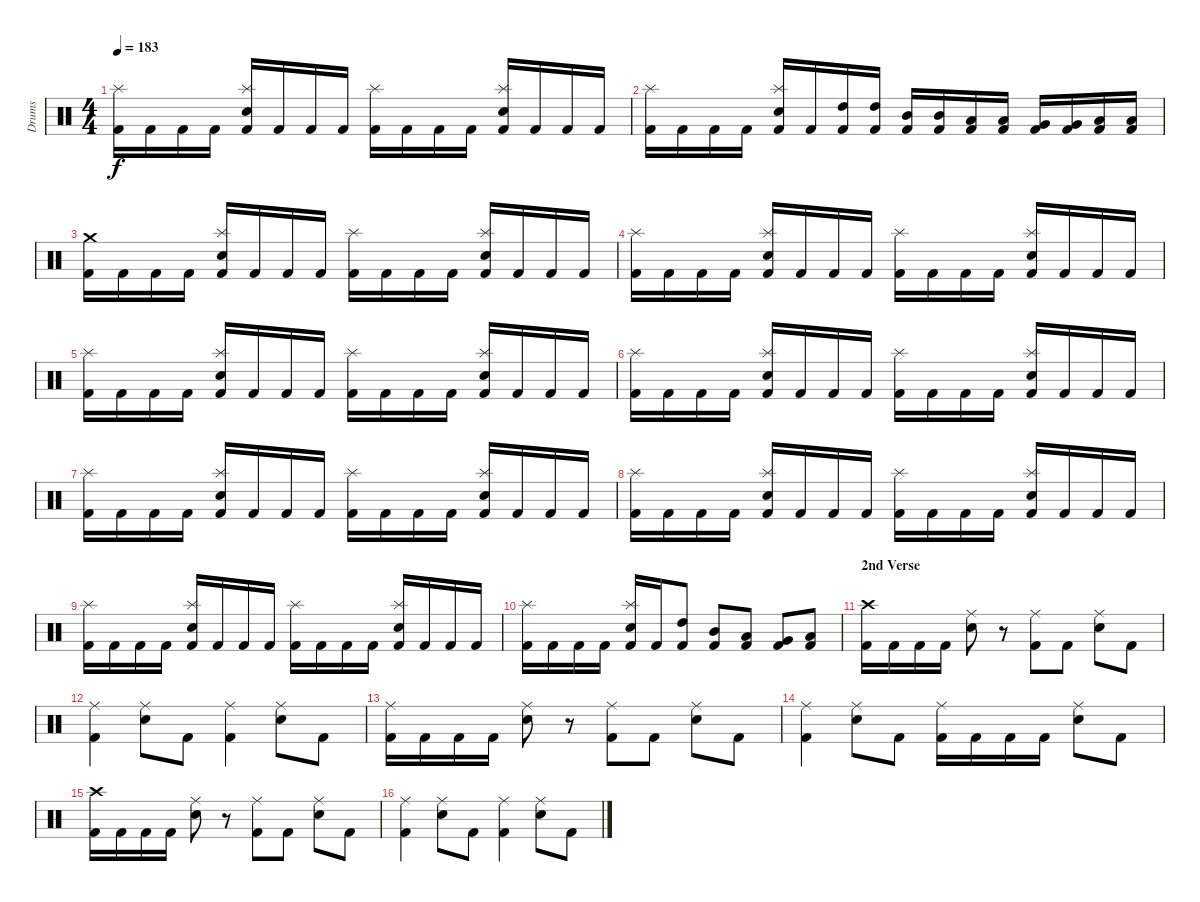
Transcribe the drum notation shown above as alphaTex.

\track ("Drums" "Drums") {instrument percussion}
\staff {score}
\articulation defaults
\ts (4 4)
\tempo 183
\clef neutral
\ks c
("Kick (hit) 2" "Splash (hit)").16{dy f} "Kick (hit) 2".16 "Kick (hit) 2".16 "Kick (hit) 2".16 ("Kick (hit) 2" "Electric Snare (hit)" "Splash (hit)").16 "Kick (hit) 2".16 "Kick (hit) 2".16 "Kick (hit) 2".16 ("Kick (hit) 2" "Splash (hit)").16 "Kick (hit) 2".16 "Kick (hit) 2".16 "Kick (hit) 2".16 ("Kick (hit) 2" "Electric Snare (hit)" "Splash (hit)").16 "Kick (hit) 2".16 "Kick (hit) 2".16 "Kick (hit) 2".16 |
("Kick (hit) 2" "Splash (hit)").16 "Kick (hit) 2".16 "Kick (hit) 2".16 "Kick (hit) 2".16 ("Kick (hit) 2" "Electric Snare (hit)" "Splash (hit)").16 "Kick (hit) 2".16 ("Kick (hit) 2" "High Tom (hit)").16 ("Kick (hit) 2" "High Tom (hit)").16 ("Kick (hit) 2" "Mid Tom (hit)").16 ("Kick (hit) 2" "Mid Tom (hit)").16 ("Kick (hit) 2" "Low Tom (hit)").16 ("Kick (hit) 2" "Low Tom (hit)").16 ("Kick (hit) 2" "Very Low Tom (hit)").16 ("Kick (hit) 2" "Very Low Tom (hit)").16 ("Kick (hit) 2" "Low Floor Tom (hit)").16 ("Kick (hit) 2" "Low Floor Tom (hit)").16 |
("Kick (hit) 2" "Crash medium (hit)").16 "Kick (hit) 2".16 "Kick (hit) 2".16 "Kick (hit) 2".16 ("Kick (hit) 2" "Electric Snare (hit)" "Splash (hit)").16 "Kick (hit) 2".16 "Kick (hit) 2".16 "Kick (hit) 2".16 ("Kick (hit) 2" "Splash (hit)").16 "Kick (hit) 2".16 "Kick (hit) 2".16 "Kick (hit) 2".16 ("Kick (hit) 2" "Electric Snare (hit)" "Splash (hit)").16 "Kick (hit) 2".16 "Kick (hit) 2".16 "Kick (hit) 2".16 |
("Kick (hit) 2" "Splash (hit)").16 "Kick (hit) 2".16 "Kick (hit) 2".16 "Kick (hit) 2".16 ("Kick (hit) 2" "Electric Snare (hit)" "Splash (hit)").16 "Kick (hit) 2".16 "Kick (hit) 2".16 "Kick (hit) 2".16 ("Kick (hit) 2" "Splash (hit)").16 "Kick (hit) 2".16 "Kick (hit) 2".16 "Kick (hit) 2".16 ("Kick (hit) 2" "Electric Snare (hit)" "Splash (hit)").16 "Kick (hit) 2".16 "Kick (hit) 2".16 "Kick (hit) 2".16 |
("Kick (hit) 2" "Splash (hit)").16 "Kick (hit) 2".16 "Kick (hit) 2".16 "Kick (hit) 2".16 ("Kick (hit) 2" "Electric Snare (hit)" "Splash (hit)").16 "Kick (hit) 2".16 "Kick (hit) 2".16 "Kick (hit) 2".16 ("Kick (hit) 2" "Splash (hit)").16 "Kick (hit) 2".16 "Kick (hit) 2".16 "Kick (hit) 2".16 ("Kick (hit) 2" "Electric Snare (hit)" "Splash (hit)").16 "Kick (hit) 2".16 "Kick (hit) 2".16 "Kick (hit) 2".16 |
("Kick (hit) 2" "Splash (hit)").16 "Kick (hit) 2".16 "Kick (hit) 2".16 "Kick (hit) 2".16 ("Kick (hit) 2" "Electric Snare (hit)" "Splash (hit)").16 "Kick (hit) 2".16 "Kick (hit) 2".16 "Kick (hit) 2".16 ("Kick (hit) 2" "Splash (hit)").16 "Kick (hit) 2".16 "Kick (hit) 2".16 "Kick (hit) 2".16 ("Kick (hit) 2" "Electric Snare (hit)" "Splash (hit)").16 "Kick (hit) 2".16 "Kick (hit) 2".16 "Kick (hit) 2".16 |
("Kick (hit) 2" "Splash (hit)").16 "Kick (hit) 2".16 "Kick (hit) 2".16 "Kick (hit) 2".16 ("Kick (hit) 2" "Electric Snare (hit)" "Splash (hit)").16 "Kick (hit) 2".16 "Kick (hit) 2".16 "Kick (hit) 2".16 ("Kick (hit) 2" "Splash (hit)").16 "Kick (hit) 2".16 "Kick (hit) 2".16 "Kick (hit) 2".16 ("Kick (hit) 2" "Electric Snare (hit)" "Splash (hit)").16 "Kick (hit) 2".16 "Kick (hit) 2".16 "Kick (hit) 2".16 |
("Kick (hit) 2" "Splash (hit)").16 "Kick (hit) 2".16 "Kick (hit) 2".16 "Kick (hit) 2".16 ("Kick (hit) 2" "Electric Snare (hit)" "Splash (hit)").16 "Kick (hit) 2".16 "Kick (hit) 2".16 "Kick (hit) 2".16 ("Kick (hit) 2" "Splash (hit)").16 "Kick (hit) 2".16 "Kick (hit) 2".16 "Kick (hit) 2".16 ("Kick (hit) 2" "Electric Snare (hit)" "Splash (hit)").16 "Kick (hit) 2".16 "Kick (hit) 2".16 "Kick (hit) 2".16 |
("Kick (hit) 2" "Splash (hit)").16 "Kick (hit) 2".16 "Kick (hit) 2".16 "Kick (hit) 2".16 ("Kick (hit) 2" "Electric Snare (hit)" "Splash (hit)").16 "Kick (hit) 2".16 "Kick (hit) 2".16 "Kick (hit) 2".16 ("Kick (hit) 2" "Splash (hit)").16 "Kick (hit) 2".16 "Kick (hit) 2".16 "Kick (hit) 2".16 ("Kick (hit) 2" "Electric Snare (hit)" "Splash (hit)").16 "Kick (hit) 2".16 "Kick (hit) 2".16 "Kick (hit) 2".16 |
("Kick (hit) 2" "Splash (hit)").16 "Kick (hit) 2".16 "Kick (hit) 2".16 "Kick (hit) 2".16 ("Kick (hit) 2" "Electric Snare (hit)" "Splash (hit)").16 "Kick (hit) 2".16 ("Kick (hit) 2" "High Tom (hit)").8 ("Kick (hit) 2" "Mid Tom (hit)").8 ("Kick (hit) 2" "Low Tom (hit)").8 ("Kick (hit) 2" "Very Low Tom (hit)").8 ("Kick (hit) 2" "Low Floor Tom (hit)").8 |
\section ("" "2nd Verse")
("Kick (hit) 2" "Crash high (hit)").16 "Kick (hit) 2".16 "Kick (hit) 2".16 "Kick (hit) 2".16 ("Electric Snare (hit)" "Ride (middle)").8 r.8 ("Kick (hit) 2" "Ride (middle)").8 "Kick (hit) 2".8 ("Electric Snare (hit)" "Ride (middle)").8 "Kick (hit) 2".8 |
("Kick (hit) 2" "Ride (middle)").4 ("Electric Snare (hit)" "Ride (middle)").8 "Kick (hit) 2".8 ("Kick (hit) 2" "Ride (middle)").4 ("Electric Snare (hit)" "Ride (middle)").8 "Kick (hit) 2".8 |
("Kick (hit) 2" "Ride (middle)").16 "Kick (hit) 2".16 "Kick (hit) 2".16 "Kick (hit) 2".16 ("Electric Snare (hit)" "Ride (middle)").8 r.8 ("Kick (hit) 2" "Ride (middle)").8 "Kick (hit) 2".8 ("Electric Snare (hit)" "Ride (middle)").8 "Kick (hit) 2".8 |
("Kick (hit) 2" "Ride (middle)").4 ("Electric Snare (hit)" "Ride (middle)").8 "Kick (hit) 2".8 ("Kick (hit) 2" "Ride (middle)").16 "Kick (hit) 2".16 "Kick (hit) 2".16 "Kick (hit) 2".16 ("Electric Snare (hit)" "Ride (middle)").8 "Kick (hit) 2".8 |
("Kick (hit) 2" "Crash high (hit)").16 "Kick (hit) 2".16 "Kick (hit) 2".16 "Kick (hit) 2".16 ("Electric Snare (hit)" "Ride (middle)").8 r.8 ("Kick (hit) 2" "Ride (middle)").8 "Kick (hit) 2".8 ("Electric Snare (hit)" "Ride (middle)").8 "Kick (hit) 2".8 |
("Kick (hit) 2" "Ride (middle)").4 ("Electric Snare (hit)" "Ride (middle)").8 "Kick (hit) 2".8 ("Kick (hit) 2" "Ride (middle)").4 ("Electric Snare (hit)" "Ride (middle)").8 "Kick (hit) 2".8
